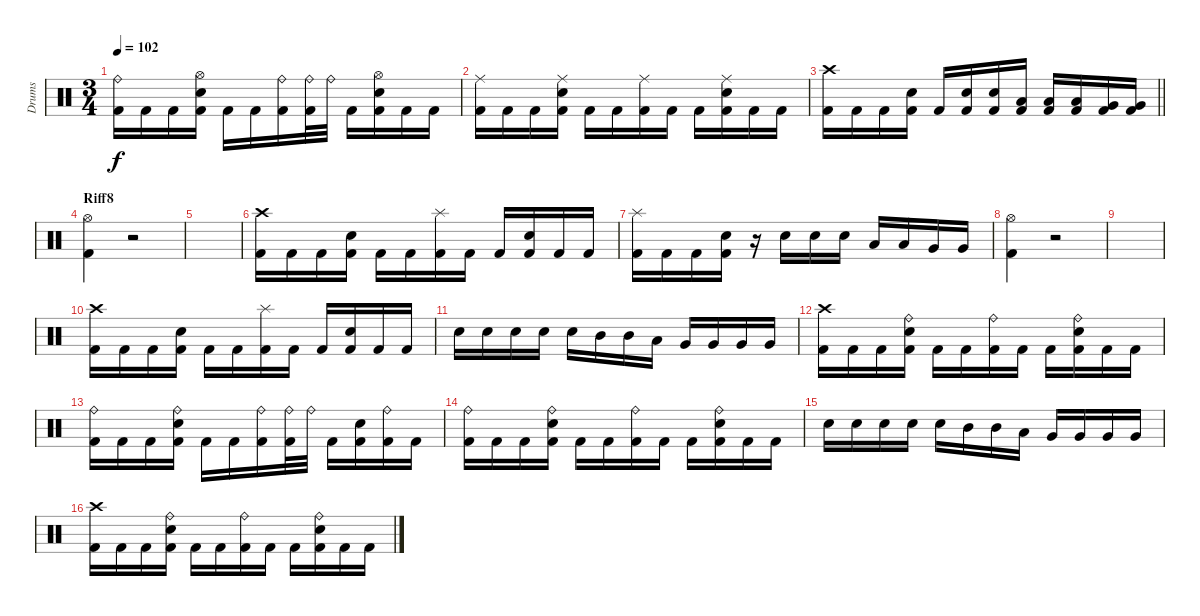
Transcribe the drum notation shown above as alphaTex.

\track ("Drums" "Drums") {instrument percussion}
\staff {score}
\articulation defaults
\ts (3 4)
\tempo 102
\clef neutral
\ks c
("Ride (bell)" "Kick (hit) 2").16{dy f} "Kick (hit) 2".16 "Kick (hit) 2".16 ("Snare (hit) 2" "Hi-Hat (open)" "Kick (hit) 2").16 "Kick (hit) 2".16 "Kick (hit) 2".16 ("Ride (bell)" "Kick (hit) 2").16 ("Ride (bell)" "Kick (hit) 2").32 "Ride (bell)".32 "Kick (hit) 2".16 ("Snare (hit) 2" "Hi-Hat (open)" "Kick (hit) 2").16 "Kick (hit) 2".16 "Kick (hit) 2".16 |
("Ride (middle)" "Kick (hit) 2").16 "Kick (hit) 2".16 "Kick (hit) 2".16 ("Snare (hit) 2" "Ride (middle)" "Kick (hit) 2").16 "Kick (hit) 2".16 "Kick (hit) 2".16 ("Ride (middle)" "Kick (hit) 2").16 "Kick (hit) 2".16 "Kick (hit) 2".16 ("Snare (hit) 2" "Ride (middle)" "Kick (hit) 2").16 "Kick (hit) 2".16 "Kick (hit) 2".16 |
\barLineRight lightlight
("Crash high (hit)" "Kick (hit) 2").16 "Kick (hit) 2".16 "Kick (hit) 2".16 ("Snare (hit) 2" "Kick (hit) 2").16 "Kick (hit) 2".16 ("Snare (hit) 2" "Kick (hit) 2").16 ("Snare (hit) 2" "Kick (hit) 2").16 ("Low Tom (hit)" "Kick (hit) 2").16 ("Low Tom (hit)" "Kick (hit) 2").16 ("Low Tom (hit)" "Kick (hit) 2").16 ("Very Low Tom (hit)" "Kick (hit) 2").16 ("Very Low Tom (hit)" "Kick (hit) 2").16 |
\section ("" "Riff8")
("Hi-Hat (open)" "Kick (hit) 2").4 r.2 |
|
("Crash high (hit)" "Kick (hit) 2").16 "Kick (hit) 2".16 "Kick (hit) 2".16 ("Snare (hit) 2" "Kick (hit) 2").16 "Kick (hit) 2".16 "Kick (hit) 2".16 ("Splash (hit)" "Kick (hit) 2").16 "Kick (hit) 2".16 "Kick (hit) 2".16 ("Snare (hit) 2" "Kick (hit) 2").16 "Kick (hit) 2".16 "Kick (hit) 2".16 |
("Splash (hit)" "Kick (hit) 2").16 "Kick (hit) 2".16 "Kick (hit) 2".16 ("Snare (hit) 2" "Kick (hit) 2").16 r.16 "Snare (hit) 2".16 "Snare (hit) 2".16 "Snare (hit) 2".16 "Low Tom (hit)".16 "Low Tom (hit)".16 "Very Low Tom (hit)".16 "Very Low Tom (hit)".16 |
("Hi-Hat (open)" "Kick (hit) 2").4 r.2 |
|
("Crash high (hit)" "Kick (hit) 2").16 "Kick (hit) 2".16 "Kick (hit) 2".16 ("Snare (hit) 2" "Kick (hit) 2").16 "Kick (hit) 2".16 "Kick (hit) 2".16 ("Splash (hit)" "Kick (hit) 2").16 "Kick (hit) 2".16 "Kick (hit) 2".16 ("Snare (hit) 2" "Kick (hit) 2").16 "Kick (hit) 2".16 "Kick (hit) 2".16 |
"Snare (hit) 2".16 "Snare (hit) 2".16 "Snare (hit) 2".16 "Snare (hit) 2".16 "Snare (hit) 2".16 "Mid Tom (hit)".16 "Mid Tom (hit)".16 "Low Tom (hit)".16 "Very Low Tom (hit)".16 "Very Low Tom (hit)".16 "Very Low Tom (hit)".16 "Very Low Tom (hit)".16 |
("Crash high (hit)" "Kick (hit) 2").16 "Kick (hit) 2".16 "Kick (hit) 2".16 ("Snare (hit) 2" "Ride (bell)" "Kick (hit) 2").16 "Kick (hit) 2".16 "Kick (hit) 2".16 ("Ride (bell)" "Kick (hit) 2").16 "Kick (hit) 2".16 "Kick (hit) 2".16 ("Snare (hit) 2" "Ride (bell)" "Kick (hit) 2").16 "Kick (hit) 2".16 "Kick (hit) 2".16 |
("Ride (bell)" "Kick (hit) 2").16 "Kick (hit) 2".16 "Kick (hit) 2".16 ("Snare (hit) 2" "Ride (bell)" "Kick (hit) 2").16 "Kick (hit) 2".16 "Kick (hit) 2".16 ("Ride (bell)" "Kick (hit) 2").16 ("Ride (bell)" "Kick (hit) 2").32 "Ride (bell)".32 "Kick (hit) 2".16 ("Snare (hit) 2" "Kick (hit) 2").16 ("Ride (bell)" "Kick (hit) 2").16 "Kick (hit) 2".16 |
("Ride (bell)" "Kick (hit) 2").16 "Kick (hit) 2".16 "Kick (hit) 2".16 ("Snare (hit) 2" "Ride (bell)" "Kick (hit) 2").16 "Kick (hit) 2".16 "Kick (hit) 2".16 ("Ride (bell)" "Kick (hit) 2").16 "Kick (hit) 2".16 "Kick (hit) 2".16 ("Snare (hit) 2" "Ride (bell)" "Kick (hit) 2").16 "Kick (hit) 2".16 "Kick (hit) 2".16 |
"Snare (hit) 2".16 "Snare (hit) 2".16 "Snare (hit) 2".16 "Snare (hit) 2".16 "Snare (hit) 2".16 "Mid Tom (hit)".16 "Mid Tom (hit)".16 "Low Tom (hit)".16 "Very Low Tom (hit)".16 "Very Low Tom (hit)".16 "Very Low Tom (hit)".16 "Very Low Tom (hit)".16 |
("Crash high (hit)" "Kick (hit) 2").16 "Kick (hit) 2".16 "Kick (hit) 2".16 ("Snare (hit) 2" "Ride (bell)" "Kick (hit) 2").16 "Kick (hit) 2".16 "Kick (hit) 2".16 ("Ride (bell)" "Kick (hit) 2").16 "Kick (hit) 2".16 "Kick (hit) 2".16 ("Snare (hit) 2" "Ride (bell)" "Kick (hit) 2").16 "Kick (hit) 2".16 "Kick (hit) 2".16
